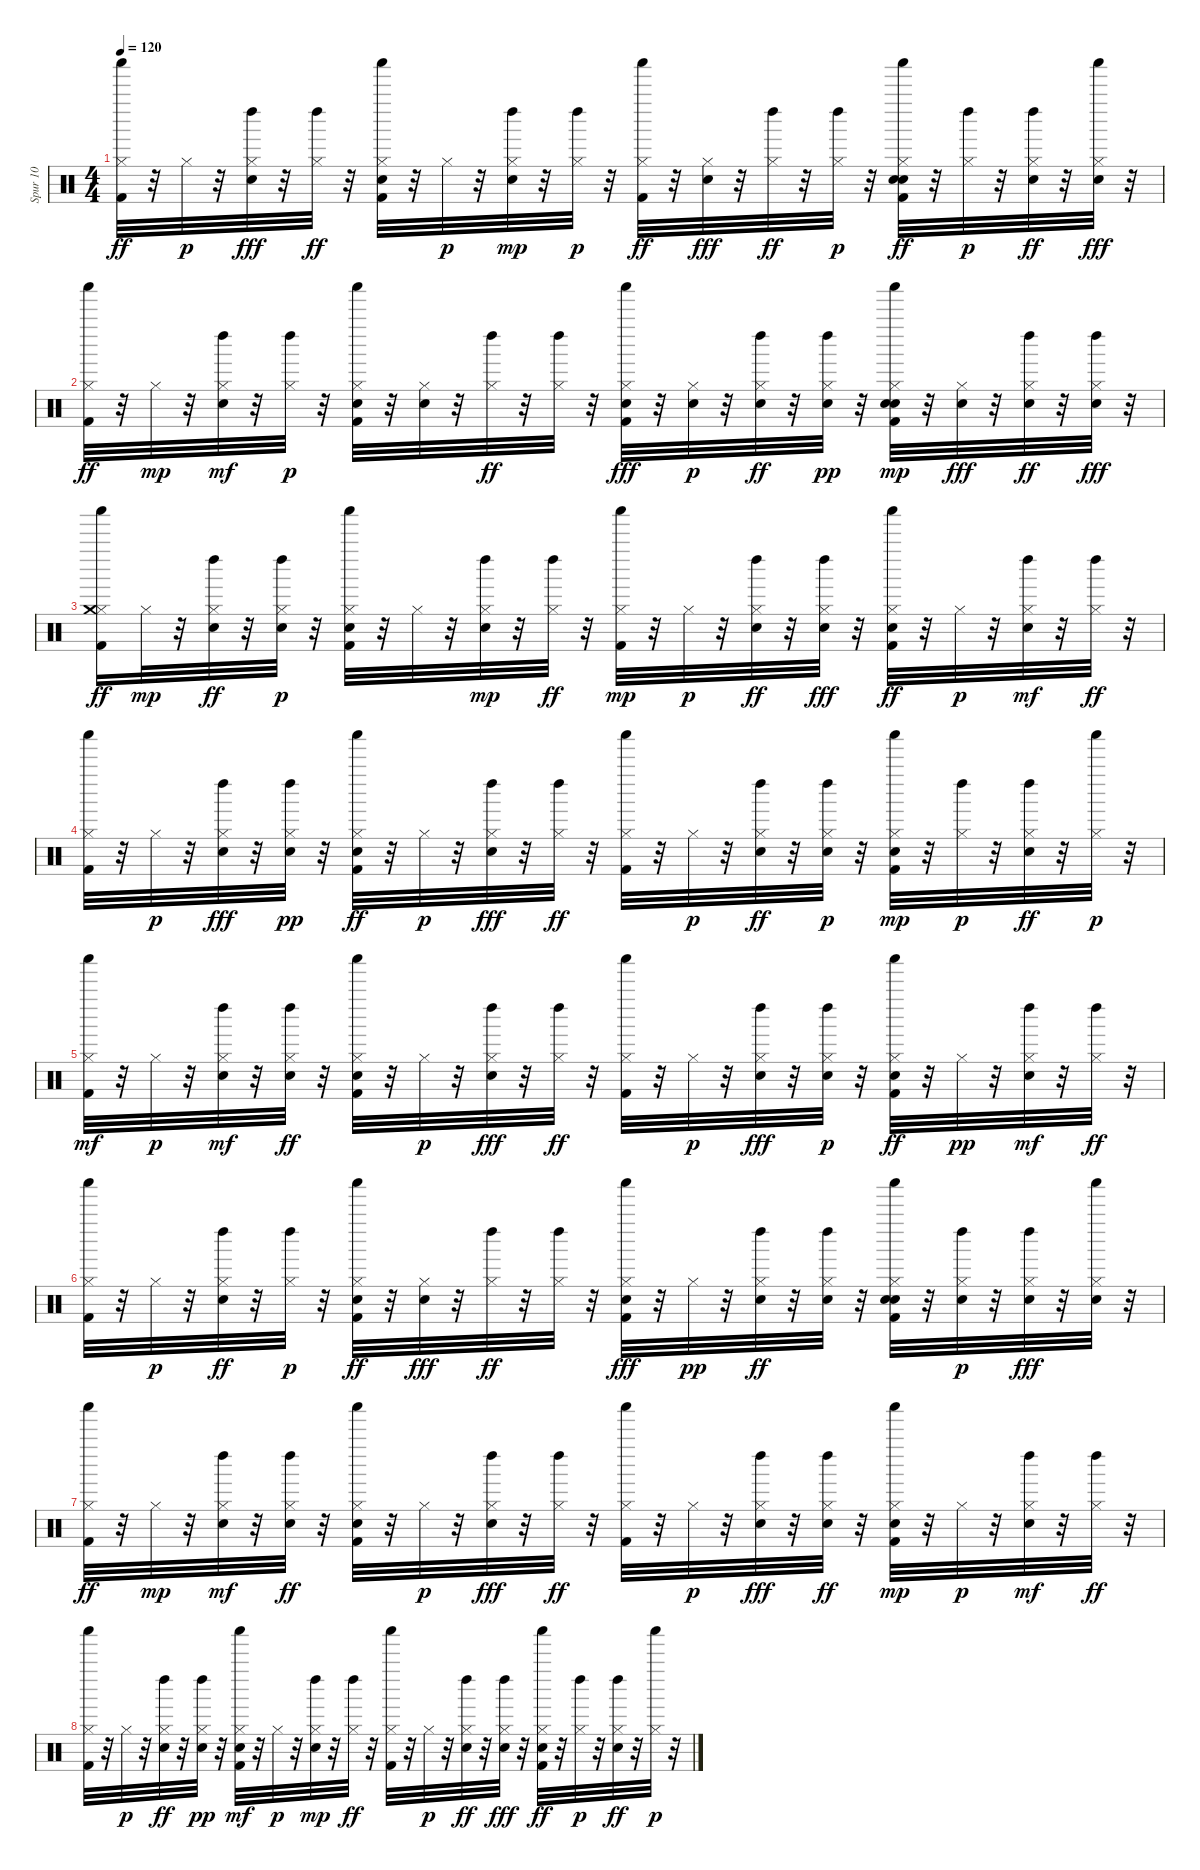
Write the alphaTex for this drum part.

\track ("Spur 10" "Spur 10") {instrument percussion}
\staff {score}
\articulation defaults
\ts (4 4)
\tempo 120
\clef neutral
\ks c
("Shaker (hit)" "Kick (hit) 2" "Hi-Hat (closed)").32{dy ff} r.32 "Hi-Hat (closed)".32{dy p} r.32 ("Hi-Hat (closed)" "Electric Snare (hit)" "Left Maraca (hit)").32{dy fff} r.32 ("Hi-Hat (closed)" "Left Maraca (hit)").32{dy ff} r.32 ("Snare (hit) 2" "Kick (hit) 2" "Shaker (hit)" "Hi-Hat (closed)").32 r.32 "Hi-Hat (closed)".32{dy p} r.32 ("Electric Snare (hit)" "Hi-Hat (closed)" "Left Maraca (hit)").32{dy mp} r.32 ("Left Maraca (hit)" "Hi-Hat (closed)").32{dy p} r.32 ("Hi-Hat (closed)" "Shaker (hit)" "Kick (hit) 2").32{dy ff} r.32 ("Hi-Hat (closed)" "Electric Snare (hit)").32{dy fff} r.32 ("Hi-Hat (closed)" "Left Maraca (hit)").32{dy ff} r.32 ("Left Maraca (hit)" "Hi-Hat (closed)").32{dy p} r.32 ("Shaker (hit)" "Electric Snare (hit)" "Snare (hit) 2" "Hi-Hat (closed)" "Kick (hit) 2").32{dy ff} r.32 ("Left Maraca (hit)" "Hi-Hat (closed)").32{dy p} r.32 ("Electric Snare (hit)" "Hi-Hat (closed)" "Left Maraca (hit)").32{dy ff} r.32 ("Electric Snare (hit)" "Shaker (hit)" "Hi-Hat (closed)").32{dy fff} r.32 |
("Hi-Hat (closed)" "Shaker (hit)" "Kick (hit) 2").32{dy ff} r.32 "Hi-Hat (closed)".32{dy mp} r.32 ("Hi-Hat (closed)" "Electric Snare (hit)" "Left Maraca (hit)").32{dy mf} r.32 ("Hi-Hat (closed)" "Left Maraca (hit)").32{dy p} r.32 ("Snare (hit) 2" "Shaker (hit)" "Kick (hit) 2" "Hi-Hat (closed)").32 r.32 ("Electric Snare (hit)" "Hi-Hat (closed)").32 r.32 ("Left Maraca (hit)" "Hi-Hat (closed)").32{dy ff} r.32 ("Hi-Hat (closed)" "Left Maraca (hit)").32 r.32 ("Shaker (hit)" "Hi-Hat (closed)" "Kick (hit) 2" "Electric Snare (hit)").32{dy fff} r.32 ("Electric Snare (hit)" "Hi-Hat (closed)").32{dy p} r.32 ("Electric Snare (hit)" "Hi-Hat (closed)" "Left Maraca (hit)").32{dy ff} r.32 ("Left Maraca (hit)" "Hi-Hat (closed)" "Electric Snare (hit)").32{dy pp} r.32 ("Kick (hit) 2" "Electric Snare (hit)" "Snare (hit) 2" "Hi-Hat (closed)" "Shaker (hit)").32{dy mp} r.32 ("Hi-Hat (closed)" "Electric Snare (hit)").32{dy fff} r.32 ("Left Maraca (hit)" "Electric Snare (hit)" "Hi-Hat (closed)").32{dy ff} r.32 ("Hi-Hat (closed)" "Left Maraca (hit)" "Electric Snare (hit)").32{dy fff} r.32 |
("Hi-Hat (closed)" "Shaker (hit)" "Crash medium (hit)" "Kick (hit) 2").16{dy ff} "Hi-Hat (closed)".32{dy mp} r.32 ("Left Maraca (hit)" "Electric Snare (hit)" "Hi-Hat (closed)").32{dy ff} r.32 ("Hi-Hat (closed)" "Left Maraca (hit)" "Electric Snare (hit)").32{dy p} r.32 ("Kick (hit) 2" "Snare (hit) 2" "Hi-Hat (closed)" "Shaker (hit)").32 r.32 "Hi-Hat (closed)".32 r.32 ("Hi-Hat (closed)" "Electric Snare (hit)" "Left Maraca (hit)").32{dy mp} r.32 ("Hi-Hat (closed)" "Left Maraca (hit)").32{dy ff} r.32 ("Shaker (hit)" "Kick (hit) 2" "Hi-Hat (closed)").32{dy mp} r.32 "Hi-Hat (closed)".32{dy p} r.32 ("Electric Snare (hit)" "Left Maraca (hit)" "Hi-Hat (closed)").32{dy ff} r.32 ("Hi-Hat (closed)" "Electric Snare (hit)" "Left Maraca (hit)").32{dy fff} r.32 ("Hi-Hat (closed)" "Shaker (hit)" "Kick (hit) 2" "Snare (hit) 2").32{dy ff} r.32 "Hi-Hat (closed)".32{dy p} r.32 ("Hi-Hat (closed)" "Electric Snare (hit)" "Left Maraca (hit)").32{dy mf} r.32 ("Hi-Hat (closed)" "Left Maraca (hit)").32{dy ff} r.32 |
("Hi-Hat (closed)" "Shaker (hit)" "Kick (hit) 2").32 r.32 "Hi-Hat (closed)".32{dy p} r.32 ("Hi-Hat (closed)" "Left Maraca (hit)" "Electric Snare (hit)").32{dy fff} r.32 ("Left Maraca (hit)" "Electric Snare (hit)" "Hi-Hat (closed)").32{dy pp} r.32 ("Hi-Hat (closed)" "Shaker (hit)" "Kick (hit) 2" "Snare (hit) 2").32{dy ff} r.32 "Hi-Hat (closed)".32{dy p} r.32 ("Left Maraca (hit)" "Hi-Hat (closed)" "Electric Snare (hit)").32{dy fff} r.32 ("Hi-Hat (closed)" "Left Maraca (hit)").32{dy ff} r.32 ("Hi-Hat (closed)" "Shaker (hit)" "Kick (hit) 2").32 r.32 "Hi-Hat (closed)".32{dy p} r.32 ("Electric Snare (hit)" "Left Maraca (hit)" "Hi-Hat (closed)").32{dy ff} r.32 ("Electric Snare (hit)" "Left Maraca (hit)" "Hi-Hat (closed)").32{dy p} r.32 ("Kick (hit) 2" "Snare (hit) 2" "Shaker (hit)" "Hi-Hat (closed)").32{dy mp} r.32 ("Hi-Hat (closed)" "Left Maraca (hit)").32{dy p} r.32 ("Left Maraca (hit)" "Electric Snare (hit)" "Hi-Hat (closed)").32{dy ff} r.32 ("Hi-Hat (closed)" "Shaker (hit)").32{dy p} r.32 |
("Kick (hit) 2" "Shaker (hit)" "Hi-Hat (closed)").32{dy mf} r.32 "Hi-Hat (closed)".32{dy p} r.32 ("Electric Snare (hit)" "Hi-Hat (closed)" "Left Maraca (hit)").32{dy mf} r.32 ("Left Maraca (hit)" "Hi-Hat (closed)" "Electric Snare (hit)").32{dy ff} r.32 ("Kick (hit) 2" "Hi-Hat (closed)" "Shaker (hit)" "Snare (hit) 2").32 r.32 "Hi-Hat (closed)".32{dy p} r.32 ("Left Maraca (hit)" "Hi-Hat (closed)" "Electric Snare (hit)").32{dy fff} r.32 ("Hi-Hat (closed)" "Left Maraca (hit)").32{dy ff} r.32 ("Shaker (hit)" "Kick (hit) 2" "Hi-Hat (closed)").32 r.32 "Hi-Hat (closed)".32{dy p} r.32 ("Hi-Hat (closed)" "Electric Snare (hit)" "Left Maraca (hit)").32{dy fff} r.32 ("Hi-Hat (closed)" "Electric Snare (hit)" "Left Maraca (hit)").32{dy p} r.32 ("Hi-Hat (closed)" "Snare (hit) 2" "Shaker (hit)" "Kick (hit) 2").32{dy ff} r.32 "Hi-Hat (closed)".32{dy pp} r.32 ("Hi-Hat (closed)" "Electric Snare (hit)" "Left Maraca (hit)").32{dy mf} r.32 ("Hi-Hat (closed)" "Left Maraca (hit)").32{dy ff} r.32 |
("Shaker (hit)" "Kick (hit) 2" "Hi-Hat (closed)").32 r.32 "Hi-Hat (closed)".32{dy p} r.32 ("Left Maraca (hit)" "Electric Snare (hit)" "Hi-Hat (closed)").32{dy ff} r.32 ("Left Maraca (hit)" "Hi-Hat (closed)").32{dy p} r.32 ("Shaker (hit)" "Snare (hit) 2" "Kick (hit) 2" "Hi-Hat (closed)").32{dy ff} r.32 ("Hi-Hat (closed)" "Electric Snare (hit)").32{dy fff} r.32 ("Left Maraca (hit)" "Hi-Hat (closed)").32{dy ff} r.32 ("Hi-Hat (closed)" "Left Maraca (hit)").32 r.32 ("Hi-Hat (closed)" "Shaker (hit)" "Kick (hit) 2" "Electric Snare (hit)").32{dy fff} r.32 "Hi-Hat (closed)".32{dy pp} r.32 ("Hi-Hat (closed)" "Electric Snare (hit)" "Left Maraca (hit)").32{dy ff} r.32 ("Hi-Hat (closed)" "Electric Snare (hit)" "Left Maraca (hit)").32 r.32 ("Electric Snare (hit)" "Hi-Hat (closed)" "Kick (hit) 2" "Snare (hit) 2" "Shaker (hit)").32 r.32 ("Electric Snare (hit)" "Left Maraca (hit)" "Hi-Hat (closed)").32{dy p} r.32 ("Left Maraca (hit)" "Hi-Hat (closed)" "Electric Snare (hit)").32{dy fff} r.32 ("Shaker (hit)" "Electric Snare (hit)" "Hi-Hat (closed)").32 r.32 |
("Kick (hit) 2" "Hi-Hat (closed)" "Shaker (hit)").32{dy ff} r.32 "Hi-Hat (closed)".32{dy mp} r.32 ("Electric Snare (hit)" "Hi-Hat (closed)" "Left Maraca (hit)").32{dy mf} r.32 ("Hi-Hat (closed)" "Electric Snare (hit)" "Left Maraca (hit)").32{dy ff} r.32 ("Hi-Hat (closed)" "Shaker (hit)" "Kick (hit) 2" "Snare (hit) 2").32 r.32 "Hi-Hat (closed)".32{dy p} r.32 ("Left Maraca (hit)" "Hi-Hat (closed)" "Electric Snare (hit)").32{dy fff} r.32 ("Hi-Hat (closed)" "Left Maraca (hit)").32{dy ff} r.32 ("Hi-Hat (closed)" "Kick (hit) 2" "Shaker (hit)").32 r.32 "Hi-Hat (closed)".32{dy p} r.32 ("Hi-Hat (closed)" "Left Maraca (hit)" "Electric Snare (hit)").32{dy fff} r.32 ("Left Maraca (hit)" "Hi-Hat (closed)" "Electric Snare (hit)").32{dy ff} r.32 ("Snare (hit) 2" "Kick (hit) 2" "Shaker (hit)" "Hi-Hat (closed)").32{dy mp} r.32 "Hi-Hat (closed)".32{dy p} r.32 ("Electric Snare (hit)" "Hi-Hat (closed)" "Left Maraca (hit)").32{dy mf} r.32 ("Hi-Hat (closed)" "Left Maraca (hit)").32{dy ff} r.32 |
("Shaker (hit)" "Hi-Hat (closed)" "Kick (hit) 2").32 r.32 "Hi-Hat (closed)".32{dy p} r.32 ("Electric Snare (hit)" "Hi-Hat (closed)" "Left Maraca (hit)").32{dy ff} r.32 ("Left Maraca (hit)" "Hi-Hat (closed)" "Electric Snare (hit)").32{dy pp} r.32 ("Kick (hit) 2" "Snare (hit) 2" "Shaker (hit)" "Hi-Hat (closed)").32{dy mf} r.32 "Hi-Hat (closed)".32{dy p} r.32 ("Hi-Hat (closed)" "Electric Snare (hit)" "Left Maraca (hit)").32{dy mp} r.32 ("Hi-Hat (closed)" "Left Maraca (hit)").32{dy ff} r.32 ("Hi-Hat (closed)" "Shaker (hit)" "Kick (hit) 2").32 r.32 "Hi-Hat (closed)".32{dy p} r.32 ("Left Maraca (hit)" "Electric Snare (hit)" "Hi-Hat (closed)").32{dy ff} r.32 ("Hi-Hat (closed)" "Left Maraca (hit)" "Electric Snare (hit)").32{dy fff} r.32 ("Shaker (hit)" "Kick (hit) 2" "Hi-Hat (closed)" "Snare (hit) 2").32{dy ff} r.32 ("Hi-Hat (closed)" "Left Maraca (hit)").32{dy p} r.32 ("Hi-Hat (closed)" "Electric Snare (hit)" "Left Maraca (hit)").32{dy ff} r.32 ("Hi-Hat (closed)" "Shaker (hit)").32{dy p} r.32
